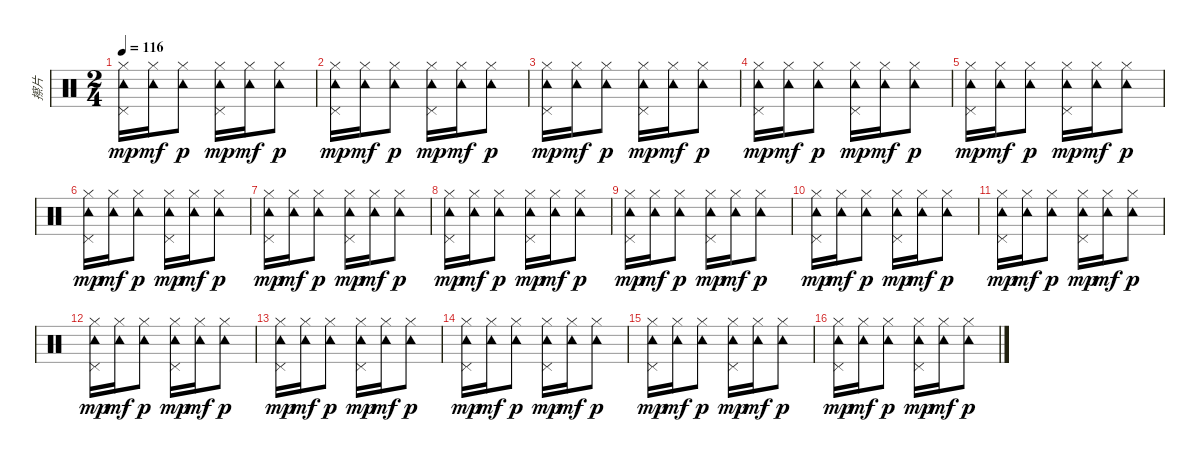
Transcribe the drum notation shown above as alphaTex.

\track ("擦片" "擦片") {instrument percussion}
\staff {score}
\articulation defaults
\ts (2 4)
\tempo 116
\clef neutral
\ks c
("Hi-Hat (closed)" "Tambourine (hit)" "Pedal Hi-Hat (hit)").16{dy mp} ("Hi-Hat (closed)" "Tambourine (hit)").16{dy mf} ("Hi-Hat (closed)" "Tambourine (hit)").8{dy p} ("Hi-Hat (closed)" "Tambourine (hit)" "Pedal Hi-Hat (hit)").16{dy mp} ("Hi-Hat (closed)" "Tambourine (hit)").16{dy mf} ("Hi-Hat (closed)" "Tambourine (hit)").8{dy p} |
("Hi-Hat (closed)" "Tambourine (hit)" "Pedal Hi-Hat (hit)").16{dy mp} ("Hi-Hat (closed)" "Tambourine (hit)").16{dy mf} ("Hi-Hat (closed)" "Tambourine (hit)").8{dy p} ("Hi-Hat (closed)" "Tambourine (hit)" "Pedal Hi-Hat (hit)").16{dy mp} ("Hi-Hat (closed)" "Tambourine (hit)").16{dy mf} ("Hi-Hat (closed)" "Tambourine (hit)").8{dy p} |
("Hi-Hat (closed)" "Tambourine (hit)" "Pedal Hi-Hat (hit)").16{dy mp} ("Hi-Hat (closed)" "Tambourine (hit)").16{dy mf} ("Hi-Hat (closed)" "Tambourine (hit)").8{dy p} ("Hi-Hat (closed)" "Tambourine (hit)" "Pedal Hi-Hat (hit)").16{dy mp} ("Hi-Hat (closed)" "Tambourine (hit)").16{dy mf} ("Hi-Hat (closed)" "Tambourine (hit)").8{dy p} |
("Hi-Hat (closed)" "Tambourine (hit)" "Pedal Hi-Hat (hit)").16{dy mp} ("Hi-Hat (closed)" "Tambourine (hit)").16{dy mf} ("Hi-Hat (closed)" "Tambourine (hit)").8{dy p} ("Hi-Hat (closed)" "Tambourine (hit)" "Pedal Hi-Hat (hit)").16{dy mp} ("Hi-Hat (closed)" "Tambourine (hit)").16{dy mf} ("Hi-Hat (closed)" "Tambourine (hit)").8{dy p} |
("Hi-Hat (closed)" "Tambourine (hit)" "Pedal Hi-Hat (hit)").16{dy mp} ("Hi-Hat (closed)" "Tambourine (hit)").16{dy mf} ("Hi-Hat (closed)" "Tambourine (hit)").8{dy p} ("Hi-Hat (closed)" "Tambourine (hit)" "Pedal Hi-Hat (hit)").16{dy mp} ("Hi-Hat (closed)" "Tambourine (hit)").16{dy mf} ("Hi-Hat (closed)" "Tambourine (hit)").8{dy p} |
("Hi-Hat (closed)" "Tambourine (hit)" "Pedal Hi-Hat (hit)").16{dy mp} ("Hi-Hat (closed)" "Tambourine (hit)").16{dy mf} ("Hi-Hat (closed)" "Tambourine (hit)").8{dy p} ("Hi-Hat (closed)" "Tambourine (hit)" "Pedal Hi-Hat (hit)").16{dy mp} ("Hi-Hat (closed)" "Tambourine (hit)").16{dy mf} ("Hi-Hat (closed)" "Tambourine (hit)").8{dy p} |
("Hi-Hat (closed)" "Tambourine (hit)" "Pedal Hi-Hat (hit)").16{dy mp} ("Hi-Hat (closed)" "Tambourine (hit)").16{dy mf} ("Hi-Hat (closed)" "Tambourine (hit)").8{dy p} ("Hi-Hat (closed)" "Tambourine (hit)" "Pedal Hi-Hat (hit)").16{dy mp} ("Hi-Hat (closed)" "Tambourine (hit)").16{dy mf} ("Hi-Hat (closed)" "Tambourine (hit)").8{dy p} |
("Hi-Hat (closed)" "Tambourine (hit)" "Pedal Hi-Hat (hit)").16{dy mp} ("Hi-Hat (closed)" "Tambourine (hit)").16{dy mf} ("Hi-Hat (closed)" "Tambourine (hit)").8{dy p} ("Hi-Hat (closed)" "Tambourine (hit)" "Pedal Hi-Hat (hit)").16{dy mp} ("Hi-Hat (closed)" "Tambourine (hit)").16{dy mf} ("Hi-Hat (closed)" "Tambourine (hit)").8{dy p} |
("Hi-Hat (closed)" "Tambourine (hit)" "Pedal Hi-Hat (hit)").16{dy mp} ("Hi-Hat (closed)" "Tambourine (hit)").16{dy mf} ("Hi-Hat (closed)" "Tambourine (hit)").8{dy p} ("Hi-Hat (closed)" "Tambourine (hit)" "Pedal Hi-Hat (hit)").16{dy mp} ("Hi-Hat (closed)" "Tambourine (hit)").16{dy mf} ("Hi-Hat (closed)" "Tambourine (hit)").8{dy p} |
("Hi-Hat (closed)" "Tambourine (hit)" "Pedal Hi-Hat (hit)").16{dy mp} ("Hi-Hat (closed)" "Tambourine (hit)").16{dy mf} ("Hi-Hat (closed)" "Tambourine (hit)").8{dy p} ("Hi-Hat (closed)" "Tambourine (hit)" "Pedal Hi-Hat (hit)").16{dy mp} ("Hi-Hat (closed)" "Tambourine (hit)").16{dy mf} ("Hi-Hat (closed)" "Tambourine (hit)").8{dy p} |
("Hi-Hat (closed)" "Tambourine (hit)" "Pedal Hi-Hat (hit)").16{dy mp} ("Hi-Hat (closed)" "Tambourine (hit)").16{dy mf} ("Hi-Hat (closed)" "Tambourine (hit)").8{dy p} ("Hi-Hat (closed)" "Tambourine (hit)" "Pedal Hi-Hat (hit)").16{dy mp} ("Hi-Hat (closed)" "Tambourine (hit)").16{dy mf} ("Hi-Hat (closed)" "Tambourine (hit)").8{dy p} |
("Hi-Hat (closed)" "Tambourine (hit)" "Pedal Hi-Hat (hit)").16{dy mp} ("Hi-Hat (closed)" "Tambourine (hit)").16{dy mf} ("Hi-Hat (closed)" "Tambourine (hit)").8{dy p} ("Hi-Hat (closed)" "Tambourine (hit)" "Pedal Hi-Hat (hit)").16{dy mp} ("Hi-Hat (closed)" "Tambourine (hit)").16{dy mf} ("Hi-Hat (closed)" "Tambourine (hit)").8{dy p} |
("Hi-Hat (closed)" "Tambourine (hit)" "Pedal Hi-Hat (hit)").16{dy mp} ("Hi-Hat (closed)" "Tambourine (hit)").16{dy mf} ("Hi-Hat (closed)" "Tambourine (hit)").8{dy p} ("Hi-Hat (closed)" "Tambourine (hit)" "Pedal Hi-Hat (hit)").16{dy mp} ("Hi-Hat (closed)" "Tambourine (hit)").16{dy mf} ("Hi-Hat (closed)" "Tambourine (hit)").8{dy p} |
("Hi-Hat (closed)" "Tambourine (hit)" "Pedal Hi-Hat (hit)").16{dy mp} ("Hi-Hat (closed)" "Tambourine (hit)").16{dy mf} ("Hi-Hat (closed)" "Tambourine (hit)").8{dy p} ("Hi-Hat (closed)" "Tambourine (hit)" "Pedal Hi-Hat (hit)").16{dy mp} ("Hi-Hat (closed)" "Tambourine (hit)").16{dy mf} ("Hi-Hat (closed)" "Tambourine (hit)").8{dy p} |
("Hi-Hat (closed)" "Tambourine (hit)" "Pedal Hi-Hat (hit)").16{dy mp} ("Hi-Hat (closed)" "Tambourine (hit)").16{dy mf} ("Hi-Hat (closed)" "Tambourine (hit)").8{dy p} ("Hi-Hat (closed)" "Tambourine (hit)" "Pedal Hi-Hat (hit)").16{dy mp} ("Hi-Hat (closed)" "Tambourine (hit)").16{dy mf} ("Hi-Hat (closed)" "Tambourine (hit)").8{dy p} |
("Hi-Hat (closed)" "Tambourine (hit)" "Pedal Hi-Hat (hit)").16{dy mp} ("Hi-Hat (closed)" "Tambourine (hit)").16{dy mf} ("Hi-Hat (closed)" "Tambourine (hit)").8{dy p} ("Hi-Hat (closed)" "Tambourine (hit)" "Pedal Hi-Hat (hit)").16{dy mp} ("Hi-Hat (closed)" "Tambourine (hit)").16{dy mf} ("Hi-Hat (closed)" "Tambourine (hit)").8{dy p}
